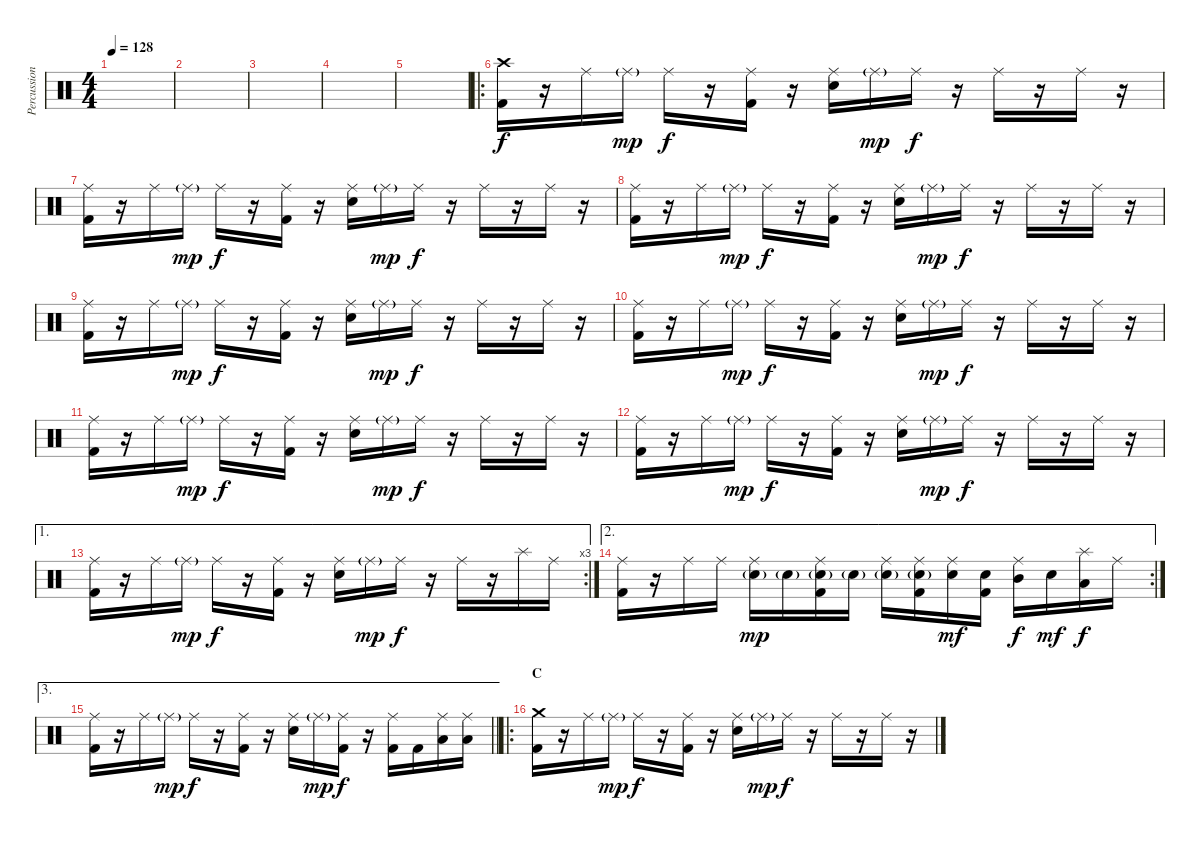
\track ("Percussion" "Percussion") {instrument percussion}
\staff {score}
\articulation defaults
\ts (4 4)
\tempo 128
\clef neutral
\ks c
|
|
|
|
|
\ro
("Crash high (hit)" "Kick (hit) 2").16{dy f} r.16 "Ride (middle)".16 "Ride (middle)"{g}.16{dy mp} "Ride (middle)".16{dy f} r.16 ("Ride (middle)" "Kick (hit) 2").16 r.16 ("Ride (middle)" "Snare (hit) 2").16 "Ride (middle)"{g}.16{dy mp} "Ride (middle)".16{dy f} r.16 "Ride (middle)".16 r.16 "Ride (middle)".16 r.16 |
("Ride (middle)" "Kick (hit) 2").16 r.16 "Ride (middle)".16 "Ride (middle)"{g}.16{dy mp} "Ride (middle)".16{dy f} r.16 ("Ride (middle)" "Kick (hit) 2").16 r.16 ("Ride (middle)" "Snare (hit) 2").16 "Ride (middle)"{g}.16{dy mp} "Ride (middle)".16{dy f} r.16 "Ride (middle)".16 r.16 "Ride (middle)".16 r.16 |
("Ride (middle)" "Kick (hit) 2").16 r.16 "Ride (middle)".16 "Ride (middle)"{g}.16{dy mp} "Ride (middle)".16{dy f} r.16 ("Ride (middle)" "Kick (hit) 2").16 r.16 ("Ride (middle)" "Snare (hit) 2").16 "Ride (middle)"{g}.16{dy mp} "Ride (middle)".16{dy f} r.16 "Ride (middle)".16 r.16 "Ride (middle)".16 r.16 |
("Ride (middle)" "Kick (hit) 2").16 r.16 "Ride (middle)".16 "Ride (middle)"{g}.16{dy mp} "Ride (middle)".16{dy f} r.16 ("Ride (middle)" "Kick (hit) 2").16 r.16 ("Ride (middle)" "Snare (hit) 2").16 "Ride (middle)"{g}.16{dy mp} "Ride (middle)".16{dy f} r.16 "Ride (middle)".16 r.16 "Ride (middle)".16 r.16 |
("Ride (middle)" "Kick (hit) 2").16 r.16 "Ride (middle)".16 "Ride (middle)"{g}.16{dy mp} "Ride (middle)".16{dy f} r.16 ("Ride (middle)" "Kick (hit) 2").16 r.16 ("Ride (middle)" "Snare (hit) 2").16 "Ride (middle)"{g}.16{dy mp} "Ride (middle)".16{dy f} r.16 "Ride (middle)".16 r.16 "Ride (middle)".16 r.16 |
("Ride (middle)" "Kick (hit) 2").16 r.16 "Ride (middle)".16 "Ride (middle)"{g}.16{dy mp} "Ride (middle)".16{dy f} r.16 ("Ride (middle)" "Kick (hit) 2").16 r.16 ("Ride (middle)" "Snare (hit) 2").16 "Ride (middle)"{g}.16{dy mp} "Ride (middle)".16{dy f} r.16 "Ride (middle)".16 r.16 "Ride (middle)".16 r.16 |
("Ride (middle)" "Kick (hit) 2").16 r.16 "Ride (middle)".16 "Ride (middle)"{g}.16{dy mp} "Ride (middle)".16{dy f} r.16 ("Ride (middle)" "Kick (hit) 2").16 r.16 ("Ride (middle)" "Snare (hit) 2").16 "Ride (middle)"{g}.16{dy mp} "Ride (middle)".16{dy f} r.16 "Ride (middle)".16 r.16 "Ride (middle)".16 r.16 |
\ae 1
\rc 3
("Ride (middle)" "Kick (hit) 2").16 r.16 "Ride (middle)".16 "Ride (middle)"{g}.16{dy mp} "Ride (middle)".16{dy f} r.16 ("Ride (middle)" "Kick (hit) 2").16 r.16 ("Ride (middle)" "Snare (hit) 2").16 "Ride (middle)"{g}.16{dy mp} "Ride (middle)".16{dy f} r.16 "Ride (middle)".16 r.16 "Splash (hit)".16 "Ride (middle)".16 |
\ae 2
\rc 2
("Ride (middle)" "Kick (hit) 2").16 r.16 "Ride (middle)".16 "Ride (middle)".16 ("Ride (middle)" "Snare (hit) 2"{g}).16{dy mp} "Snare (hit) 2"{g}.16 ("Ride (middle)" "Snare (hit) 2"{g} "Kick (hit) 2").16 "Snare (hit) 2"{g}.16 ("Ride (middle)" "Snare (hit) 2"{g}).16 ("Ride (middle)" "Snare (hit) 2"{g} "Kick (hit) 2").16 ("Ride (middle)" "Snare (hit) 2").16{dy mf} ("Snare (hit) 2" "Kick (hit) 2").16 ("Ride (middle)" "Mid Tom (hit)").16{dy f} "Snare (hit) 2".16{dy mf} ("Splash (hit)" "Low Tom (hit)").16{dy f} "Ride (middle)".16 |
\ae 3
\barLineRight lightlight
("Ride (middle)" "Kick (hit) 2").16 r.16 "Ride (middle)".16 "Ride (middle)"{g}.16{dy mp} "Ride (middle)".16{dy f} r.16 ("Ride (middle)" "Kick (hit) 2").16 r.16 ("Ride (middle)" "Snare (hit) 2").16 "Ride (middle)"{g}.16{dy mp} ("Ride (middle)" "Kick (hit) 2").16{dy f} r.16 ("Ride (middle)" "Kick (hit) 2").16 "Kick (hit) 2".16 ("Ride (middle)" "Low Tom (hit)").16 ("Ride (middle)" "Low Tom (hit)").16 |
\ro
\section ("" "C")
("Crash medium (hit)" "Kick (hit) 2").16 r.16 "Ride (middle)".16 "Ride (middle)"{g}.16{dy mp} "Ride (middle)".16{dy f} r.16 ("Ride (middle)" "Kick (hit) 2").16 r.16 ("Ride (middle)" "Snare (hit) 2").16 "Ride (middle)"{g}.16{dy mp} "Ride (middle)".16{dy f} r.16 "Ride (middle)".16 r.16 "Ride (middle)".16 r.16
